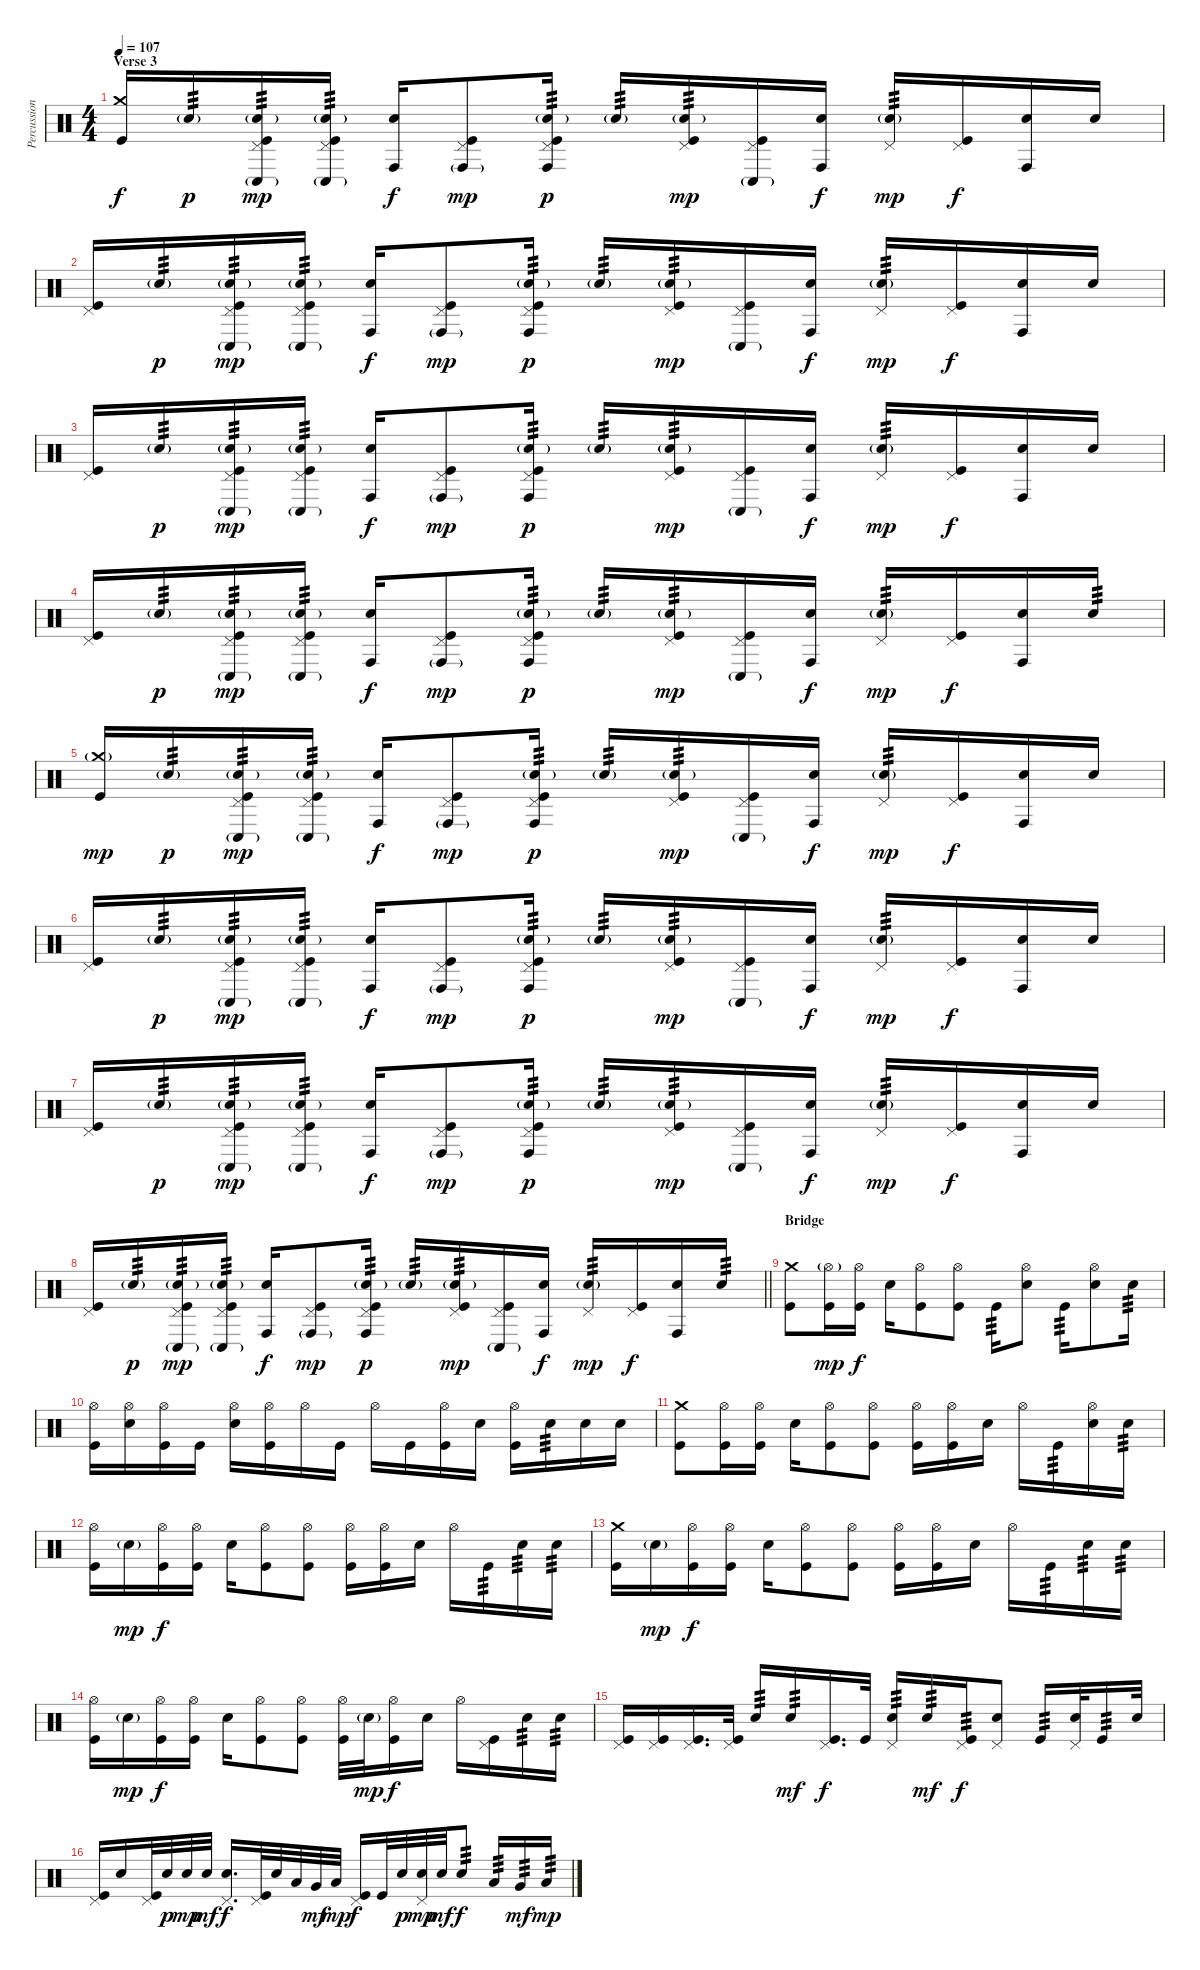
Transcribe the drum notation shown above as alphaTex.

\track ("Percussion" "Percussion") {instrument percussion}
\staff {score}
\articulation defaults
\ts (4 4)
\section ("" "Verse 3")
\tempo 107
\clef neutral
\ks c
("Crash medium (hit)" "Kick (hit)").16{dy f} "Snare (hit) 2"{g}.16{tp 3 dy p} ("Pedal Hi-Hat (hit)" "Snare (hit) 2"{g} "Conga low (hit)"{g} "Kick (hit)").16{tp 3 dy mp} ("Pedal Hi-Hat (hit)" "Snare (hit) 2"{g} "Conga low (hit)"{g} "Kick (hit)").16{tp 3} ("Snare (hit) 2" "Conga high (hit)").16{dy f} ("Pedal Hi-Hat (hit)" "Conga high (hit)"{g} "Kick (hit)").8{dy mp} ("Pedal Hi-Hat (hit)" "Snare (hit) 2"{g} "Conga high (hit)" "Kick (hit)").16{tp 3 dy p} "Snare (hit) 2"{g}.16{tp 3} ("Pedal Hi-Hat (hit)" "Snare (hit) 2"{g} "Kick (hit)").16{tp 3 dy mp} ("Pedal Hi-Hat (hit)" "Conga low (hit)"{g} "Kick (hit)").16 ("Snare (hit) 2" "Conga high (hit)").16{dy f} ("Pedal Hi-Hat (hit)" "Snare (hit) 2"{g}).16{tp 3 dy mp} ("Pedal Hi-Hat (hit)" "Kick (hit)").16{dy f} ("Snare (hit) 2" "Conga high (hit)").16 "Snare (hit) 2".16 |
("Pedal Hi-Hat (hit)" "Kick (hit)").16 "Snare (hit) 2"{g}.16{tp 3 dy p} ("Pedal Hi-Hat (hit)" "Snare (hit) 2"{g} "Conga low (hit)"{g} "Kick (hit)").16{tp 3 dy mp} ("Pedal Hi-Hat (hit)" "Snare (hit) 2"{g} "Conga low (hit)"{g} "Kick (hit)").16{tp 3} ("Snare (hit) 2" "Conga high (hit)").16{dy f} ("Pedal Hi-Hat (hit)" "Conga high (hit)"{g} "Kick (hit)").8{dy mp} ("Pedal Hi-Hat (hit)" "Snare (hit) 2"{g} "Conga high (hit)" "Kick (hit)").16{tp 3 dy p} "Snare (hit) 2"{g}.16{tp 3} ("Pedal Hi-Hat (hit)" "Snare (hit) 2"{g} "Kick (hit)").16{tp 3 dy mp} ("Pedal Hi-Hat (hit)" "Conga low (hit)"{g} "Kick (hit)").16 ("Snare (hit) 2" "Conga high (hit)").16{dy f} ("Pedal Hi-Hat (hit)" "Snare (hit) 2"{g}).16{tp 3 dy mp} ("Pedal Hi-Hat (hit)" "Kick (hit)").16{dy f} ("Snare (hit) 2" "Conga high (hit)").16 "Snare (hit) 2".16 |
("Pedal Hi-Hat (hit)" "Kick (hit)").16 "Snare (hit) 2"{g}.16{tp 3 dy p} ("Pedal Hi-Hat (hit)" "Snare (hit) 2"{g} "Conga low (hit)"{g} "Kick (hit)").16{tp 3 dy mp} ("Pedal Hi-Hat (hit)" "Snare (hit) 2"{g} "Conga low (hit)"{g} "Kick (hit)").16{tp 3} ("Snare (hit) 2" "Conga high (hit)").16{dy f} ("Pedal Hi-Hat (hit)" "Conga high (hit)"{g} "Kick (hit)").8{dy mp} ("Pedal Hi-Hat (hit)" "Snare (hit) 2"{g} "Conga high (hit)" "Kick (hit)").16{tp 3 dy p} "Snare (hit) 2"{g}.16{tp 3} ("Pedal Hi-Hat (hit)" "Snare (hit) 2"{g} "Kick (hit)").16{tp 3 dy mp} ("Pedal Hi-Hat (hit)" "Conga low (hit)"{g} "Kick (hit)").16 ("Snare (hit) 2" "Conga high (hit)").16{dy f} ("Pedal Hi-Hat (hit)" "Snare (hit) 2"{g}).16{tp 3 dy mp} ("Pedal Hi-Hat (hit)" "Kick (hit)").16{dy f} ("Snare (hit) 2" "Conga high (hit)").16 "Snare (hit) 2".16 |
("Pedal Hi-Hat (hit)" "Kick (hit)").16 "Snare (hit) 2"{g}.16{tp 3 dy p} ("Pedal Hi-Hat (hit)" "Snare (hit) 2"{g} "Conga low (hit)"{g} "Kick (hit)").16{tp 3 dy mp} ("Pedal Hi-Hat (hit)" "Snare (hit) 2"{g} "Conga low (hit)"{g} "Kick (hit)").16{tp 3} ("Snare (hit) 2" "Conga high (hit)").16{dy f} ("Pedal Hi-Hat (hit)" "Conga high (hit)"{g} "Kick (hit)").8{dy mp} ("Pedal Hi-Hat (hit)" "Snare (hit) 2"{g} "Conga high (hit)" "Kick (hit)").16{tp 3 dy p} "Snare (hit) 2"{g}.16{tp 3} ("Pedal Hi-Hat (hit)" "Snare (hit) 2"{g} "Kick (hit)").16{tp 3 dy mp} ("Pedal Hi-Hat (hit)" "Conga low (hit)"{g} "Kick (hit)").16 ("Snare (hit) 2" "Conga high (hit)").16{dy f} ("Pedal Hi-Hat (hit)" "Snare (hit) 2"{g}).16{tp 3 dy mp} ("Pedal Hi-Hat (hit)" "Kick (hit)").16{dy f} ("Snare (hit) 2" "Conga high (hit)").16 "Snare (hit) 2".16{tp 3} |
("Crash medium (hit)"{g} "Kick (hit)").16{dy mp} "Snare (hit) 2"{g}.16{tp 3 dy p} ("Pedal Hi-Hat (hit)" "Snare (hit) 2"{g} "Conga low (hit)"{g} "Kick (hit)").16{tp 3 dy mp} ("Pedal Hi-Hat (hit)" "Snare (hit) 2"{g} "Conga low (hit)"{g} "Kick (hit)").16{tp 3} ("Snare (hit) 2" "Conga high (hit)").16{dy f} ("Pedal Hi-Hat (hit)" "Conga high (hit)"{g} "Kick (hit)").8{dy mp} ("Pedal Hi-Hat (hit)" "Snare (hit) 2"{g} "Conga high (hit)" "Kick (hit)").16{tp 3 dy p} "Snare (hit) 2"{g}.16{tp 3} ("Pedal Hi-Hat (hit)" "Snare (hit) 2"{g} "Kick (hit)").16{tp 3 dy mp} ("Pedal Hi-Hat (hit)" "Conga low (hit)"{g} "Kick (hit)").16 ("Snare (hit) 2" "Conga high (hit)").16{dy f} ("Pedal Hi-Hat (hit)" "Snare (hit) 2"{g}).16{tp 3 dy mp} ("Pedal Hi-Hat (hit)" "Kick (hit)").16{dy f} ("Snare (hit) 2" "Conga high (hit)").16 "Snare (hit) 2".16 |
("Pedal Hi-Hat (hit)" "Kick (hit)").16 "Snare (hit) 2"{g}.16{tp 3 dy p} ("Pedal Hi-Hat (hit)" "Snare (hit) 2"{g} "Conga low (hit)"{g} "Kick (hit)").16{tp 3 dy mp} ("Pedal Hi-Hat (hit)" "Snare (hit) 2"{g} "Conga low (hit)"{g} "Kick (hit)").16{tp 3} ("Snare (hit) 2" "Conga high (hit)").16{dy f} ("Pedal Hi-Hat (hit)" "Conga high (hit)"{g} "Kick (hit)").8{dy mp} ("Pedal Hi-Hat (hit)" "Snare (hit) 2"{g} "Conga high (hit)" "Kick (hit)").16{tp 3 dy p} "Snare (hit) 2"{g}.16{tp 3} ("Pedal Hi-Hat (hit)" "Snare (hit) 2"{g} "Kick (hit)").16{tp 3 dy mp} ("Pedal Hi-Hat (hit)" "Conga low (hit)"{g} "Kick (hit)").16 ("Snare (hit) 2" "Conga high (hit)").16{dy f} ("Pedal Hi-Hat (hit)" "Snare (hit) 2"{g}).16{tp 3 dy mp} ("Pedal Hi-Hat (hit)" "Kick (hit)").16{dy f} ("Snare (hit) 2" "Conga high (hit)").16 "Snare (hit) 2".16 |
("Pedal Hi-Hat (hit)" "Kick (hit)").16 "Snare (hit) 2"{g}.16{tp 3 dy p} ("Pedal Hi-Hat (hit)" "Snare (hit) 2"{g} "Conga low (hit)"{g} "Kick (hit)").16{tp 3 dy mp} ("Pedal Hi-Hat (hit)" "Snare (hit) 2"{g} "Conga low (hit)"{g} "Kick (hit)").16{tp 3} ("Snare (hit) 2" "Conga high (hit)").16{dy f} ("Pedal Hi-Hat (hit)" "Conga high (hit)"{g} "Kick (hit)").8{dy mp} ("Pedal Hi-Hat (hit)" "Snare (hit) 2"{g} "Conga high (hit)" "Kick (hit)").16{tp 3 dy p} "Snare (hit) 2"{g}.16{tp 3} ("Pedal Hi-Hat (hit)" "Snare (hit) 2"{g} "Kick (hit)").16{tp 3 dy mp} ("Pedal Hi-Hat (hit)" "Conga low (hit)"{g} "Kick (hit)").16 ("Snare (hit) 2" "Conga high (hit)").16{dy f} ("Pedal Hi-Hat (hit)" "Snare (hit) 2"{g}).16{tp 3 dy mp} ("Pedal Hi-Hat (hit)" "Kick (hit)").16{dy f} ("Snare (hit) 2" "Conga high (hit)").16 "Snare (hit) 2".16 |
\barLineRight lightlight
("Pedal Hi-Hat (hit)" "Kick (hit)").16 "Snare (hit) 2"{g}.16{tp 3 dy p} ("Pedal Hi-Hat (hit)" "Snare (hit) 2"{g} "Conga low (hit)"{g} "Kick (hit)").16{tp 3 dy mp} ("Pedal Hi-Hat (hit)" "Snare (hit) 2"{g} "Conga low (hit)"{g} "Kick (hit)").16{tp 3} ("Snare (hit) 2" "Conga high (hit)").16{dy f} ("Pedal Hi-Hat (hit)" "Conga high (hit)"{g} "Kick (hit)").8{dy mp} ("Pedal Hi-Hat (hit)" "Snare (hit) 2"{g} "Conga high (hit)" "Kick (hit)").16{tp 3 dy p} "Snare (hit) 2"{g}.16{tp 3} ("Pedal Hi-Hat (hit)" "Snare (hit) 2"{g} "Kick (hit)").16{tp 3 dy mp} ("Pedal Hi-Hat (hit)" "Conga low (hit)"{g} "Kick (hit)").16 ("Snare (hit) 2" "Conga high (hit)").16{dy f} ("Pedal Hi-Hat (hit)" "Snare (hit) 2"{g}).16{tp 3 dy mp} ("Pedal Hi-Hat (hit)" "Kick (hit)").16{dy f} ("Snare (hit) 2" "Conga high (hit)").16 "Snare (hit) 2".16{tp 3} |
\section ("" "Bridge")
("Crash medium (hit)" "Kick (hit)").8 ("Hi-Hat (open)"{g} "Kick (hit)").16{dy mp} ("Hi-Hat (open)" "Kick (hit)").16{dy f} "Snare (hit) 2".16 ("Hi-Hat (open)" "Kick (hit)").8 ("Hi-Hat (open)" "Kick (hit)").8 "Kick (hit)".16{tp 3} ("Hi-Hat (open)" "Snare (hit) 2").8 "Kick (hit)".16{tp 3} ("Hi-Hat (open)" "Snare (hit) 2").8 "Snare (hit) 2".16{tp 3} |
("Hi-Hat (open)" "Kick (hit)").16 ("Hi-Hat (open)" "Snare (hit) 2").16 ("Hi-Hat (open)" "Kick (hit)").16 "Kick (hit)".16 ("Hi-Hat (open)" "Snare (hit) 2").16 ("Hi-Hat (open)" "Kick (hit)").16 "Hi-Hat (open)".16 "Kick (hit)".16 "Hi-Hat (open)".16 "Kick (hit)".16 ("Hi-Hat (open)" "Kick (hit)").16 "Snare (hit) 2".16 ("Hi-Hat (open)" "Kick (hit)").16 "Snare (hit) 2".16{tp 3} "Snare (hit) 2".16 "Snare (hit) 2".16 |
("Crash medium (hit)" "Kick (hit)").8 ("Hi-Hat (open)" "Kick (hit)").16 ("Hi-Hat (open)" "Kick (hit)").16 "Snare (hit) 2".16 ("Hi-Hat (open)" "Kick (hit)").8 ("Hi-Hat (open)" "Kick (hit)").8 ("Hi-Hat (open)" "Kick (hit)").16 ("Hi-Hat (open)" "Kick (hit)").16 "Snare (hit) 2".16 "Hi-Hat (open)".16 "Kick (hit)".16{tp 3} ("Hi-Hat (open)" "Snare (hit) 2").16 "Snare (hit) 2".16{tp 3} |
("Hi-Hat (open)" "Kick (hit)").16 "Snare (hit) 2"{g}.16{dy mp} ("Hi-Hat (open)" "Kick (hit)").16{dy f} ("Hi-Hat (open)" "Kick (hit)").16 "Snare (hit) 2".16 ("Hi-Hat (open)" "Kick (hit)").8 ("Hi-Hat (open)" "Kick (hit)").8 ("Hi-Hat (open)" "Kick (hit)").16 ("Hi-Hat (open)" "Kick (hit)").16 "Snare (hit) 2".16 "Hi-Hat (open)".16 "Kick (hit)".16{tp 3} "Snare (hit) 2".16{tp 3} "Snare (hit) 2".16{tp 3} |
("Crash medium (hit)" "Kick (hit)").16 "Snare (hit) 2"{g}.16{dy mp} ("Hi-Hat (open)" "Kick (hit)").16{dy f} ("Hi-Hat (open)" "Kick (hit)").16 "Snare (hit) 2".16 ("Hi-Hat (open)" "Kick (hit)").8 ("Hi-Hat (open)" "Kick (hit)").8 ("Hi-Hat (open)" "Kick (hit)").16 ("Hi-Hat (open)" "Kick (hit)").16 "Snare (hit) 2".16 "Hi-Hat (open)".16 "Kick (hit)".16{tp 3} "Snare (hit) 2".16{tp 3} "Snare (hit) 2".16{tp 3} |
("Hi-Hat (open)" "Kick (hit)").16 "Snare (hit) 2"{g}.16{dy mp} ("Hi-Hat (open)" "Kick (hit)").16{dy f} ("Hi-Hat (open)" "Kick (hit)").16 "Snare (hit) 2".16 ("Hi-Hat (open)" "Kick (hit)").8 ("Hi-Hat (open)" "Kick (hit)").8 ("Hi-Hat (open)" "Kick (hit)").32 "Snare (hit) 2"{g}.32{dy mp} ("Hi-Hat (open)" "Kick (hit)").16{dy f} "Snare (hit) 2".16 "Hi-Hat (open)".16 ("Pedal Hi-Hat (hit)" "Kick (hit)").16 "Snare (hit) 2".16{tp 3} "Snare (hit) 2".16{tp 3} |
("Pedal Hi-Hat (hit)" "Kick (hit)").16 ("Pedal Hi-Hat (hit)" "Kick (hit)").16 ("Pedal Hi-Hat (hit)" "Kick (hit)").16{d} ("Pedal Hi-Hat (hit)" "Kick (hit)").32 "Snare (hit) 2".16{tp 3} "Snare (hit) 2".16{tp 3 dy mf} ("Pedal Hi-Hat (hit)" "Kick (hit)").16{d dy f} "Kick (hit)".32 ("Pedal Hi-Hat (hit)" "Snare (hit) 2").16{tp 3} "Snare (hit) 2".16{tp 3 dy mf} ("Pedal Hi-Hat (hit)" "Kick (hit)").16{tp 3 dy f} ("Pedal Hi-Hat (hit)" "Snare (hit) 2").8 "Kick (hit)".16{tp 3} ("Pedal Hi-Hat (hit)" "Snare (hit) 2").32 "Kick (hit)".16{tp 3} "Snare (hit) 2".32 |
("Pedal Hi-Hat (hit)" "Kick (hit)").16 "Snare (hit) 2".16 ("Pedal Hi-Hat (hit)" "Kick (hit)").32 "Snare (hit) 2".32{dy p} "Snare (hit) 2".32{dy mp} "Snare (hit) 2".32{dy mf} ("Pedal Hi-Hat (hit)" "Snare (hit) 2").16{d dy f} ("Pedal Hi-Hat (hit)" "Kick (hit)").32 "Snare (hit) 2".32 "Low Tom (hit)".32 "Very Low Tom (hit)".32{dy mf} "Low Floor Tom (hit)".32{dy mp} ("Pedal Hi-Hat (hit)" "Kick (hit)").16{dy f} "Kick (hit)".32 "Snare (hit) 2".32{dy p} ("Pedal Hi-Hat (hit)" "Snare (hit) 2").32{dy mp} "Snare (hit) 2".32{dy mf} "Snare (hit) 2".8{tp 3 dy f} "Low Tom (hit)".16{tp 3} "Very Low Tom (hit)".16{tp 3 dy mf} "Low Floor Tom (hit)".16{tp 3 dy mp}
